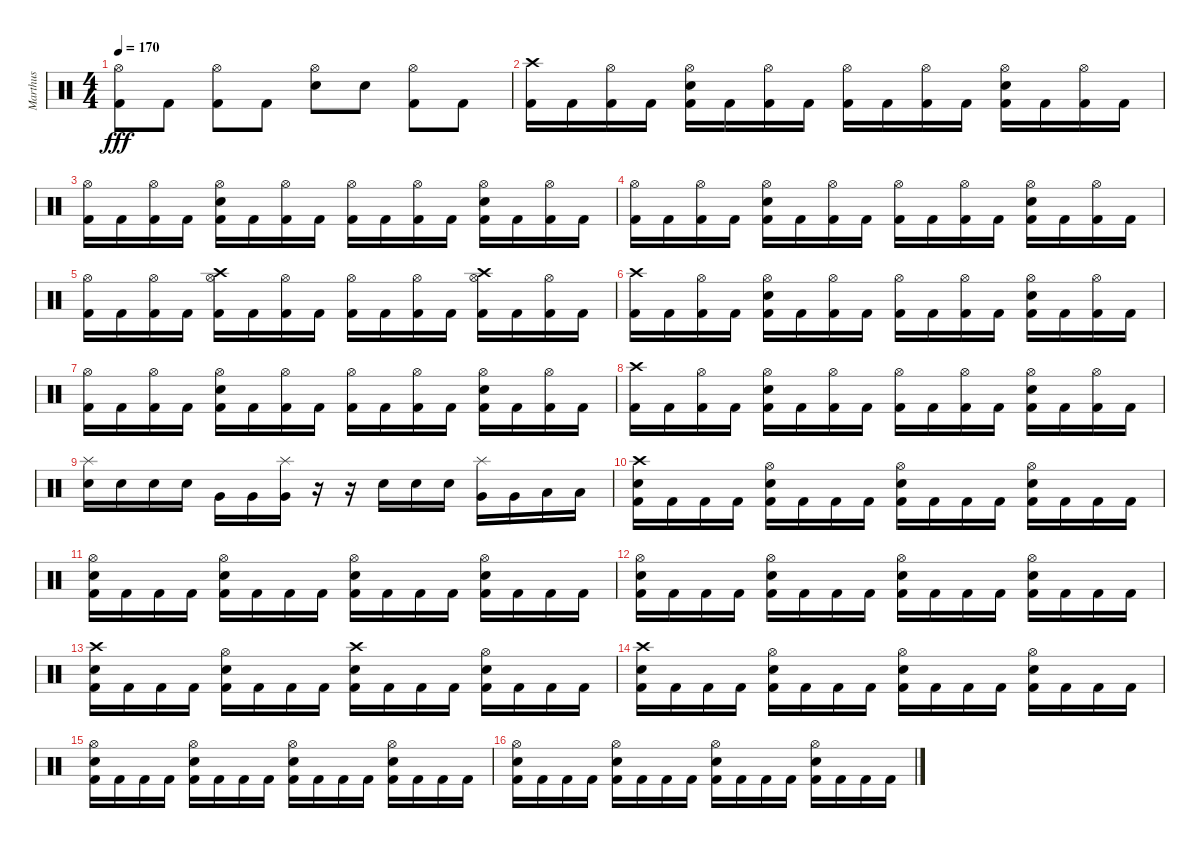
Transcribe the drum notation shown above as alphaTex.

\track ("Marthus" "Marthus") {instrument percussion}
\staff {score}
\articulation defaults
\ts (4 4)
\tempo 170
\clef neutral
\ks c
("Hi-Hat (open)" "Kick (hit) 2").8{dy fff} "Kick (hit) 2".8 ("Hi-Hat (open)" "Kick (hit) 2").8 "Kick (hit) 2".8 ("Hi-Hat (open)" "Electric Snare (hit)").8 "Electric Snare (hit)".8 ("Hi-Hat (open)" "Kick (hit) 2").8 "Kick (hit) 2".8 |
("Crash high (hit)" "Kick (hit) 2").16 "Kick (hit) 2".16 ("Hi-Hat (open)" "Kick (hit) 2").16 "Kick (hit) 2".16 ("Hi-Hat (open)" "Electric Snare (hit)" "Kick (hit) 2").16 "Kick (hit) 2".16 ("Hi-Hat (open)" "Kick (hit) 2").16 "Kick (hit) 2".16 ("Hi-Hat (open)" "Kick (hit) 2").16 "Kick (hit) 2".16 ("Hi-Hat (open)" "Kick (hit) 2").16 "Kick (hit) 2".16 ("Hi-Hat (open)" "Electric Snare (hit)" "Kick (hit) 2").16 "Kick (hit) 2".16 ("Hi-Hat (open)" "Kick (hit) 2").16 "Kick (hit) 2".16 |
("Hi-Hat (open)" "Kick (hit) 2").16 "Kick (hit) 2".16 ("Hi-Hat (open)" "Kick (hit) 2").16 "Kick (hit) 2".16 ("Hi-Hat (open)" "Electric Snare (hit)" "Kick (hit) 2").16 "Kick (hit) 2".16 ("Hi-Hat (open)" "Kick (hit) 2").16 "Kick (hit) 2".16 ("Hi-Hat (open)" "Kick (hit) 2").16 "Kick (hit) 2".16 ("Hi-Hat (open)" "Kick (hit) 2").16 "Kick (hit) 2".16 ("Hi-Hat (open)" "Electric Snare (hit)" "Kick (hit) 2").16 "Kick (hit) 2".16 ("Hi-Hat (open)" "Kick (hit) 2").16 "Kick (hit) 2".16 |
("Hi-Hat (open)" "Kick (hit) 2").16 "Kick (hit) 2".16 ("Hi-Hat (open)" "Kick (hit) 2").16 "Kick (hit) 2".16 ("Hi-Hat (open)" "Electric Snare (hit)" "Kick (hit) 2").16 "Kick (hit) 2".16 ("Hi-Hat (open)" "Kick (hit) 2").16 "Kick (hit) 2".16 ("Hi-Hat (open)" "Kick (hit) 2").16 "Kick (hit) 2".16 ("Hi-Hat (open)" "Kick (hit) 2").16 "Kick (hit) 2".16 ("Hi-Hat (open)" "Electric Snare (hit)" "Kick (hit) 2").16 "Kick (hit) 2".16 ("Hi-Hat (open)" "Kick (hit) 2").16 "Kick (hit) 2".16 |
("Hi-Hat (open)" "Kick (hit) 2").16 "Kick (hit) 2".16 ("Hi-Hat (open)" "Kick (hit) 2").16 "Kick (hit) 2".16 ("Crash high (hit)" "Hi-Hat (open)" "Kick (hit) 2").16 "Kick (hit) 2".16 ("Hi-Hat (open)" "Kick (hit) 2").16 "Kick (hit) 2".16 ("Hi-Hat (open)" "Kick (hit) 2").16 "Kick (hit) 2".16 ("Hi-Hat (open)" "Kick (hit) 2").16 "Kick (hit) 2".16 ("Crash high (hit)" "Hi-Hat (open)" "Kick (hit) 2").16 "Kick (hit) 2".16 ("Hi-Hat (open)" "Kick (hit) 2").16 "Kick (hit) 2".16 |
("Crash high (hit)" "Kick (hit) 2").16 "Kick (hit) 2".16 ("Hi-Hat (open)" "Kick (hit) 2").16 "Kick (hit) 2".16 ("Hi-Hat (open)" "Electric Snare (hit)" "Kick (hit) 2").16 "Kick (hit) 2".16 ("Hi-Hat (open)" "Kick (hit) 2").16 "Kick (hit) 2".16 ("Hi-Hat (open)" "Kick (hit) 2").16 "Kick (hit) 2".16 ("Hi-Hat (open)" "Kick (hit) 2").16 "Kick (hit) 2".16 ("Hi-Hat (open)" "Electric Snare (hit)" "Kick (hit) 2").16 "Kick (hit) 2".16 ("Hi-Hat (open)" "Kick (hit) 2").16 "Kick (hit) 2".16 |
("Hi-Hat (open)" "Kick (hit) 2").16 "Kick (hit) 2".16 ("Hi-Hat (open)" "Kick (hit) 2").16 "Kick (hit) 2".16 ("Hi-Hat (open)" "Electric Snare (hit)" "Kick (hit) 2").16 "Kick (hit) 2".16 ("Hi-Hat (open)" "Kick (hit) 2").16 "Kick (hit) 2".16 ("Hi-Hat (open)" "Kick (hit) 2").16 "Kick (hit) 2".16 ("Hi-Hat (open)" "Kick (hit) 2").16 "Kick (hit) 2".16 ("Hi-Hat (open)" "Electric Snare (hit)" "Kick (hit) 2").16 "Kick (hit) 2".16 ("Hi-Hat (open)" "Kick (hit) 2").16 "Kick (hit) 2".16 |
("Crash high (hit)" "Kick (hit) 2").16 "Kick (hit) 2".16 ("Hi-Hat (open)" "Kick (hit) 2").16 "Kick (hit) 2".16 ("Hi-Hat (open)" "Electric Snare (hit)" "Kick (hit) 2").16 "Kick (hit) 2".16 ("Hi-Hat (open)" "Kick (hit) 2").16 "Kick (hit) 2".16 ("Hi-Hat (open)" "Kick (hit) 2").16 "Kick (hit) 2".16 ("Hi-Hat (open)" "Kick (hit) 2").16 "Kick (hit) 2".16 ("Hi-Hat (open)" "Electric Snare (hit)" "Kick (hit) 2").16 "Kick (hit) 2".16 ("Hi-Hat (open)" "Kick (hit) 2").16 "Kick (hit) 2".16 |
("Splash (hit)" "Electric Snare (hit)").16 "Electric Snare (hit)".16 "Electric Snare (hit)".16 "Electric Snare (hit)".16 "Very Low Tom (hit)".16 "Very Low Tom (hit)".16 ("Splash (hit)" "Very Low Tom (hit)").16 r.16 r.16 "Electric Snare (hit)".16 "Electric Snare (hit)".16 "Electric Snare (hit)".16 ("Splash (hit)" "Very Low Tom (hit)").16 "Very Low Tom (hit)".16 "Low Tom (hit)".16 "Low Tom (hit)".16 |
("Crash high (hit)" "Electric Snare (hit)" "Kick (hit) 2").16 "Kick (hit) 2".16 "Kick (hit) 2".16 "Kick (hit) 2".16 ("Hi-Hat (open)" "Electric Snare (hit)" "Kick (hit) 2").16 "Kick (hit) 2".16 "Kick (hit) 2".16 "Kick (hit) 2".16 ("Hi-Hat (open)" "Electric Snare (hit)" "Kick (hit) 2").16 "Kick (hit) 2".16 "Kick (hit) 2".16 "Kick (hit) 2".16 ("Hi-Hat (open)" "Electric Snare (hit)" "Kick (hit) 2").16 "Kick (hit) 2".16 "Kick (hit) 2".16 "Kick (hit) 2".16 |
("Hi-Hat (open)" "Electric Snare (hit)" "Kick (hit) 2").16 "Kick (hit) 2".16 "Kick (hit) 2".16 "Kick (hit) 2".16 ("Hi-Hat (open)" "Electric Snare (hit)" "Kick (hit) 2").16 "Kick (hit) 2".16 "Kick (hit) 2".16 "Kick (hit) 2".16 ("Hi-Hat (open)" "Electric Snare (hit)" "Kick (hit) 2").16 "Kick (hit) 2".16 "Kick (hit) 2".16 "Kick (hit) 2".16 ("Hi-Hat (open)" "Electric Snare (hit)" "Kick (hit) 2").16 "Kick (hit) 2".16 "Kick (hit) 2".16 "Kick (hit) 2".16 |
("Hi-Hat (open)" "Electric Snare (hit)" "Kick (hit) 2").16 "Kick (hit) 2".16 "Kick (hit) 2".16 "Kick (hit) 2".16 ("Hi-Hat (open)" "Electric Snare (hit)" "Kick (hit) 2").16 "Kick (hit) 2".16 "Kick (hit) 2".16 "Kick (hit) 2".16 ("Hi-Hat (open)" "Electric Snare (hit)" "Kick (hit) 2").16 "Kick (hit) 2".16 "Kick (hit) 2".16 "Kick (hit) 2".16 ("Hi-Hat (open)" "Electric Snare (hit)" "Kick (hit) 2").16 "Kick (hit) 2".16 "Kick (hit) 2".16 "Kick (hit) 2".16 |
("Crash high (hit)" "Electric Snare (hit)" "Kick (hit) 2").16 "Kick (hit) 2".16 "Kick (hit) 2".16 "Kick (hit) 2".16 ("Hi-Hat (open)" "Electric Snare (hit)" "Kick (hit) 2").16 "Kick (hit) 2".16 "Kick (hit) 2".16 "Kick (hit) 2".16 ("Crash high (hit)" "Electric Snare (hit)" "Kick (hit) 2").16 "Kick (hit) 2".16 "Kick (hit) 2".16 "Kick (hit) 2".16 ("Hi-Hat (open)" "Electric Snare (hit)" "Kick (hit) 2").16 "Kick (hit) 2".16 "Kick (hit) 2".16 "Kick (hit) 2".16 |
("Crash high (hit)" "Electric Snare (hit)" "Kick (hit) 2").16 "Kick (hit) 2".16 "Kick (hit) 2".16 "Kick (hit) 2".16 ("Hi-Hat (open)" "Electric Snare (hit)" "Kick (hit) 2").16 "Kick (hit) 2".16 "Kick (hit) 2".16 "Kick (hit) 2".16 ("Hi-Hat (open)" "Electric Snare (hit)" "Kick (hit) 2").16 "Kick (hit) 2".16 "Kick (hit) 2".16 "Kick (hit) 2".16 ("Hi-Hat (open)" "Electric Snare (hit)" "Kick (hit) 2").16 "Kick (hit) 2".16 "Kick (hit) 2".16 "Kick (hit) 2".16 |
("Hi-Hat (open)" "Electric Snare (hit)" "Kick (hit) 2").16 "Kick (hit) 2".16 "Kick (hit) 2".16 "Kick (hit) 2".16 ("Hi-Hat (open)" "Electric Snare (hit)" "Kick (hit) 2").16 "Kick (hit) 2".16 "Kick (hit) 2".16 "Kick (hit) 2".16 ("Hi-Hat (open)" "Electric Snare (hit)" "Kick (hit) 2").16 "Kick (hit) 2".16 "Kick (hit) 2".16 "Kick (hit) 2".16 ("Hi-Hat (open)" "Electric Snare (hit)" "Kick (hit) 2").16 "Kick (hit) 2".16 "Kick (hit) 2".16 "Kick (hit) 2".16 |
("Hi-Hat (open)" "Electric Snare (hit)" "Kick (hit) 2").16 "Kick (hit) 2".16 "Kick (hit) 2".16 "Kick (hit) 2".16 ("Hi-Hat (open)" "Electric Snare (hit)" "Kick (hit) 2").16 "Kick (hit) 2".16 "Kick (hit) 2".16 "Kick (hit) 2".16 ("Hi-Hat (open)" "Electric Snare (hit)" "Kick (hit) 2").16 "Kick (hit) 2".16 "Kick (hit) 2".16 "Kick (hit) 2".16 ("Hi-Hat (open)" "Electric Snare (hit)" "Kick (hit) 2").16 "Kick (hit) 2".16 "Kick (hit) 2".16 "Kick (hit) 2".16
